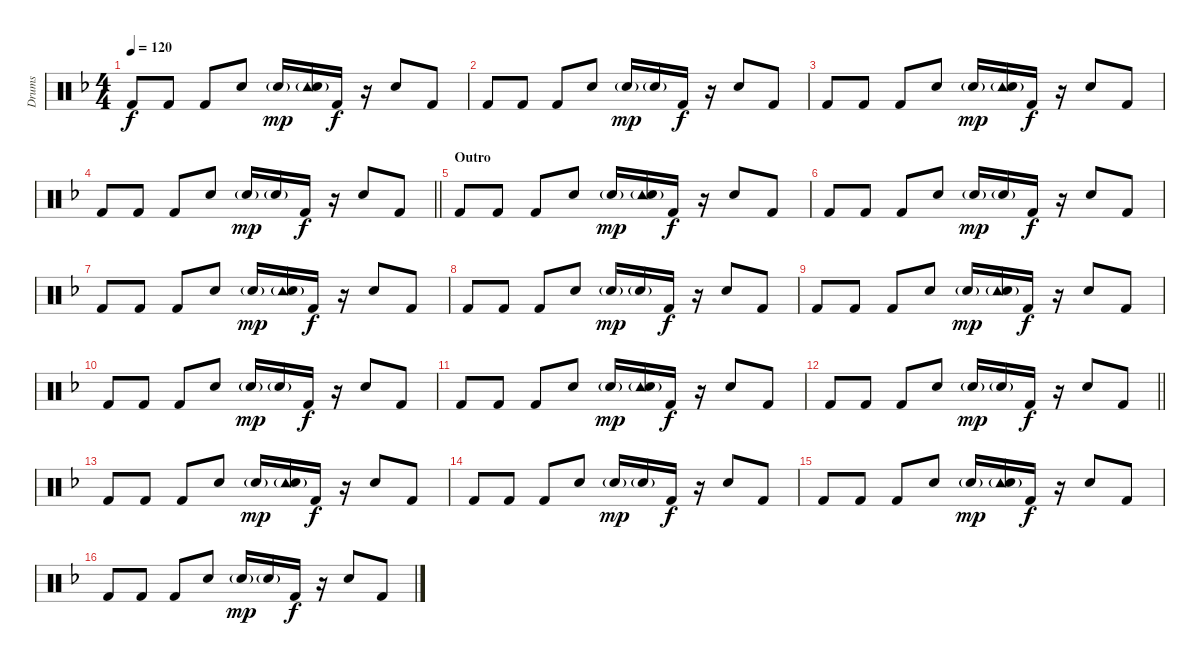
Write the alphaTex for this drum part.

\track ("Drums" "Drums") {instrument percussion}
\staff {score}
\articulation defaults
\ts (4 4)
\tempo 120
\clef neutral
\ks f "Kick (hit) 2".8{dy f} "Kick (hit) 2".8 "Kick (hit) 2".8 "Snare (hit) 2".8 "Snare (hit) 2"{g}.16{dy mp}
("Tambourine (hit)" "Snare (hit) 2"{g}).16 "Kick (hit) 2".16{dy f} r.16 "Snare (hit) 2".8 "Kick (hit) 2".8 |
"Kick (hit) 2".8 "Kick (hit) 2".8 "Kick (hit) 2".8 "Snare (hit) 2".8 "Snare (hit) 2"{g}.16{dy mp} "Snare (hit) 2"{g}.16 "Kick (hit) 2".16{dy f} r.16 "Snare (hit) 2".8 "Kick (hit) 2".8 |
"Kick (hit) 2".8 "Kick (hit) 2".8 "Kick (hit) 2".8 "Snare (hit) 2".8 "Snare (hit) 2"{g}.16{dy mp} ("Tambourine (hit)" "Snare (hit) 2"{g}).16 "Kick (hit) 2".16{dy f} r.16 "Snare (hit) 2".8 "Kick (hit) 2".8 |
\barLineRight lightlight "Kick (hit) 2".8 "Kick (hit) 2".8 "Kick (hit) 2".8 "Snare (hit) 2".8 "Snare (hit) 2"{g}.16{dy mp} "Snare (hit) 2"{g}.16 "Kick (hit) 2".16{dy f}
r.16 "Snare (hit) 2".8 "Kick (hit) 2".8 |
\section ("" "Outro")
"Kick (hit) 2".8 "Kick (hit) 2".8 "Kick (hit) 2".8 "Snare (hit) 2".8 "Snare (hit) 2"{g}.16{dy mp} ("Tambourine (hit)" "Snare (hit) 2"{g}).16 "Kick (hit) 2".16{dy f} r.16 "Snare (hit) 2".8 "Kick (hit) 2".8 |
"Kick (hit) 2".8 "Kick (hit) 2".8 "Kick (hit) 2".8 "Snare (hit) 2".8 "Snare (hit) 2"{g}.16{dy mp} "Snare (hit) 2"{g}.16 "Kick (hit) 2".16{dy f} r.16 "Snare (hit) 2".8 "Kick (hit) 2".8 |
"Kick (hit) 2".8 "Kick (hit) 2".8 "Kick (hit) 2".8 "Snare (hit) 2".8 "Snare (hit) 2"{g}.16{dy mp} ("Tambourine (hit)" "Snare (hit) 2"{g}).16 "Kick (hit) 2".16{dy f} r.16 "Snare (hit) 2".8 "Kick (hit) 2".8 |
"Kick (hit) 2".8 "Kick (hit) 2".8 "Kick (hit) 2".8 "Snare (hit) 2".8 "Snare (hit) 2"{g}.16{dy mp} "Snare (hit) 2"{g}.16 "Kick (hit) 2".16{dy f} r.16 "Snare (hit) 2".8 "Kick (hit) 2".8 |
"Kick (hit) 2".8 "Kick (hit) 2".8 "Kick (hit) 2".8 "Snare (hit) 2".8 "Snare (hit) 2"{g}.16{dy mp} ("Tambourine (hit)" "Snare (hit) 2"{g}).16 "Kick (hit) 2".16{dy f} r.16 "Snare (hit) 2".8 "Kick (hit) 2".8 |
"Kick (hit) 2".8 "Kick (hit) 2".8 "Kick (hit) 2".8 "Snare (hit) 2".8 "Snare (hit) 2"{g}.16{dy mp} "Snare (hit) 2"{g}.16 "Kick (hit) 2".16{dy f} r.16 "Snare (hit) 2".8 "Kick (hit) 2".8 |
"Kick (hit) 2".8 "Kick (hit) 2".8 "Kick (hit) 2".8 "Snare (hit) 2".8 "Snare (hit) 2"{g}.16{dy mp} ("Tambourine (hit)" "Snare (hit) 2"{g}).16 "Kick (hit) 2".16{dy f} r.16 "Snare (hit) 2".8 "Kick (hit) 2".8 |
\barLineRight lightlight "Kick (hit) 2".8 "Kick (hit) 2".8 "Kick (hit) 2".8 "Snare (hit) 2".8 "Snare (hit) 2"{g}.16{dy mp} "Snare (hit) 2"{g}.16 "Kick (hit) 2".16{dy f}
r.16 "Snare (hit) 2".8 "Kick (hit) 2".8 |
"Kick (hit) 2".8 "Kick (hit) 2".8 "Kick (hit) 2".8 "Snare (hit) 2".8 "Snare (hit) 2"{g}.16{dy mp} ("Tambourine (hit)" "Snare (hit) 2"{g}).16 "Kick (hit) 2".16{dy f} r.16 "Snare (hit) 2".8 "Kick (hit) 2".8 |
"Kick (hit) 2".8 "Kick (hit) 2".8 "Kick (hit) 2".8 "Snare (hit) 2".8 "Snare (hit) 2"{g}.16{dy mp} "Snare (hit) 2"{g}.16 "Kick (hit) 2".16{dy f} r.16 "Snare (hit) 2".8 "Kick (hit) 2".8 |
"Kick (hit) 2".8 "Kick (hit) 2".8 "Kick (hit) 2".8 "Snare (hit) 2".8 "Snare (hit) 2"{g}.16{dy mp} ("Tambourine (hit)" "Snare (hit) 2"{g}).16 "Kick (hit) 2".16{dy f} r.16 "Snare (hit) 2".8 "Kick (hit) 2".8 |
"Kick (hit) 2".8 "Kick (hit) 2".8 "Kick (hit) 2".8 "Snare (hit) 2".8 "Snare (hit) 2"{g}.16{dy mp} "Snare (hit) 2"{g}.16 "Kick (hit) 2".16{dy f} r.16 "Snare (hit) 2".8 "Kick (hit) 2".8
